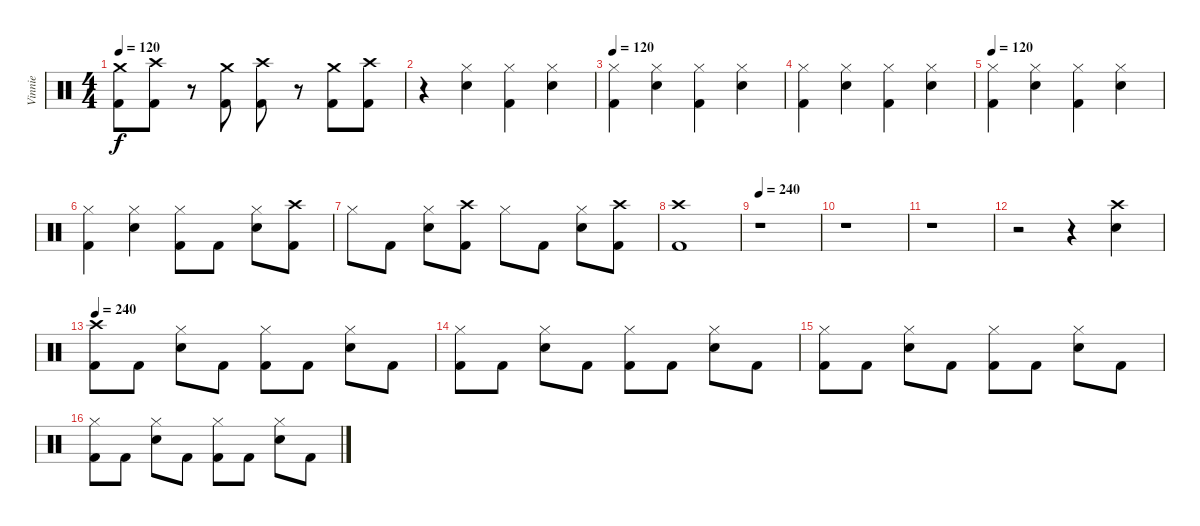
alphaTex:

\track ("Vinnie" "Vinnie") {instrument percussion}
\staff {score}
\articulation defaults
\ts (4 4)
\tempo 120
\clef neutral
\ks c
("Crash medium (hit)" "Kick (hit) 2").8{dy f} ("Crash high (hit)" "Kick (hit) 2").8 r.8 ("Crash medium (hit)" "Kick (hit) 2").8 ("Crash high (hit)" "Kick (hit) 2").8 r.8 ("Crash medium (hit)" "Kick (hit) 2").8 ("Crash high (hit)" "Kick (hit) 2").8 |
r.4 ("Hi-Hat (closed)" "Electric Snare (hit)").4 ("Hi-Hat (closed)" "Kick (hit) 2").4 ("Hi-Hat (closed)" "Electric Snare (hit)").4 |
\tempo 120
("Hi-Hat (closed)" "Kick (hit) 2").4 ("Hi-Hat (closed)" "Electric Snare (hit)").4 ("Hi-Hat (closed)" "Kick (hit) 2").4 ("Hi-Hat (closed)" "Electric Snare (hit)").4 |
("Hi-Hat (closed)" "Kick (hit) 2").4 ("Hi-Hat (closed)" "Electric Snare (hit)").4 ("Hi-Hat (closed)" "Kick (hit) 2").4 ("Hi-Hat (closed)" "Electric Snare (hit)").4 |
\tempo 120
("Hi-Hat (closed)" "Kick (hit) 2").4 ("Hi-Hat (closed)" "Electric Snare (hit)").4 ("Hi-Hat (closed)" "Kick (hit) 2").4 ("Hi-Hat (closed)" "Electric Snare (hit)").4 |
("Hi-Hat (closed)" "Kick (hit) 2").4 ("Hi-Hat (closed)" "Electric Snare (hit)").4 ("Hi-Hat (closed)" "Kick (hit) 2").8 "Kick (hit) 2".8 ("Hi-Hat (closed)" "Electric Snare (hit)").8 ("Crash high (hit)" "Kick (hit) 2").8 |
"Hi-Hat (closed)".8 "Kick (hit) 2".8 ("Hi-Hat (closed)" "Electric Snare (hit)").8 ("Crash high (hit)" "Kick (hit) 2").8 "Hi-Hat (closed)".8 "Kick (hit) 2".8 ("Hi-Hat (closed)" "Electric Snare (hit)").8 ("Crash high (hit)" "Kick (hit) 2").8 |
("Crash high (hit)" "Kick (hit) 2").1 |
\tempo 240
r.1 |
r.1 |
r.1 |
r.2 r.4 ("Crash high (hit)" "Electric Snare (hit)").4 |
\tempo 240
("Crash high (hit)" "Kick (hit) 2").8 "Kick (hit) 2".8 ("Hi-Hat (closed)" "Electric Snare (hit)").8 "Kick (hit) 2".8 ("Hi-Hat (closed)" "Kick (hit) 2").8 "Kick (hit) 2".8 ("Hi-Hat (closed)" "Electric Snare (hit)").8 "Kick (hit) 2".8 |
("Hi-Hat (closed)" "Kick (hit) 2").8 "Kick (hit) 2".8 ("Hi-Hat (closed)" "Electric Snare (hit)").8 "Kick (hit) 2".8 ("Hi-Hat (closed)" "Kick (hit) 2").8 "Kick (hit) 2".8 ("Hi-Hat (closed)" "Electric Snare (hit)").8 "Kick (hit) 2".8 |
("Hi-Hat (closed)" "Kick (hit) 2").8 "Kick (hit) 2".8 ("Hi-Hat (closed)" "Electric Snare (hit)").8 "Kick (hit) 2".8 ("Hi-Hat (closed)" "Kick (hit) 2").8 "Kick (hit) 2".8 ("Hi-Hat (closed)" "Electric Snare (hit)").8 "Kick (hit) 2".8 |
("Hi-Hat (closed)" "Kick (hit) 2").8 "Kick (hit) 2".8 ("Hi-Hat (closed)" "Electric Snare (hit)").8 "Kick (hit) 2".8 ("Hi-Hat (closed)" "Kick (hit) 2").8 "Kick (hit) 2".8 ("Hi-Hat (closed)" "Electric Snare (hit)").8 "Kick (hit) 2".8
